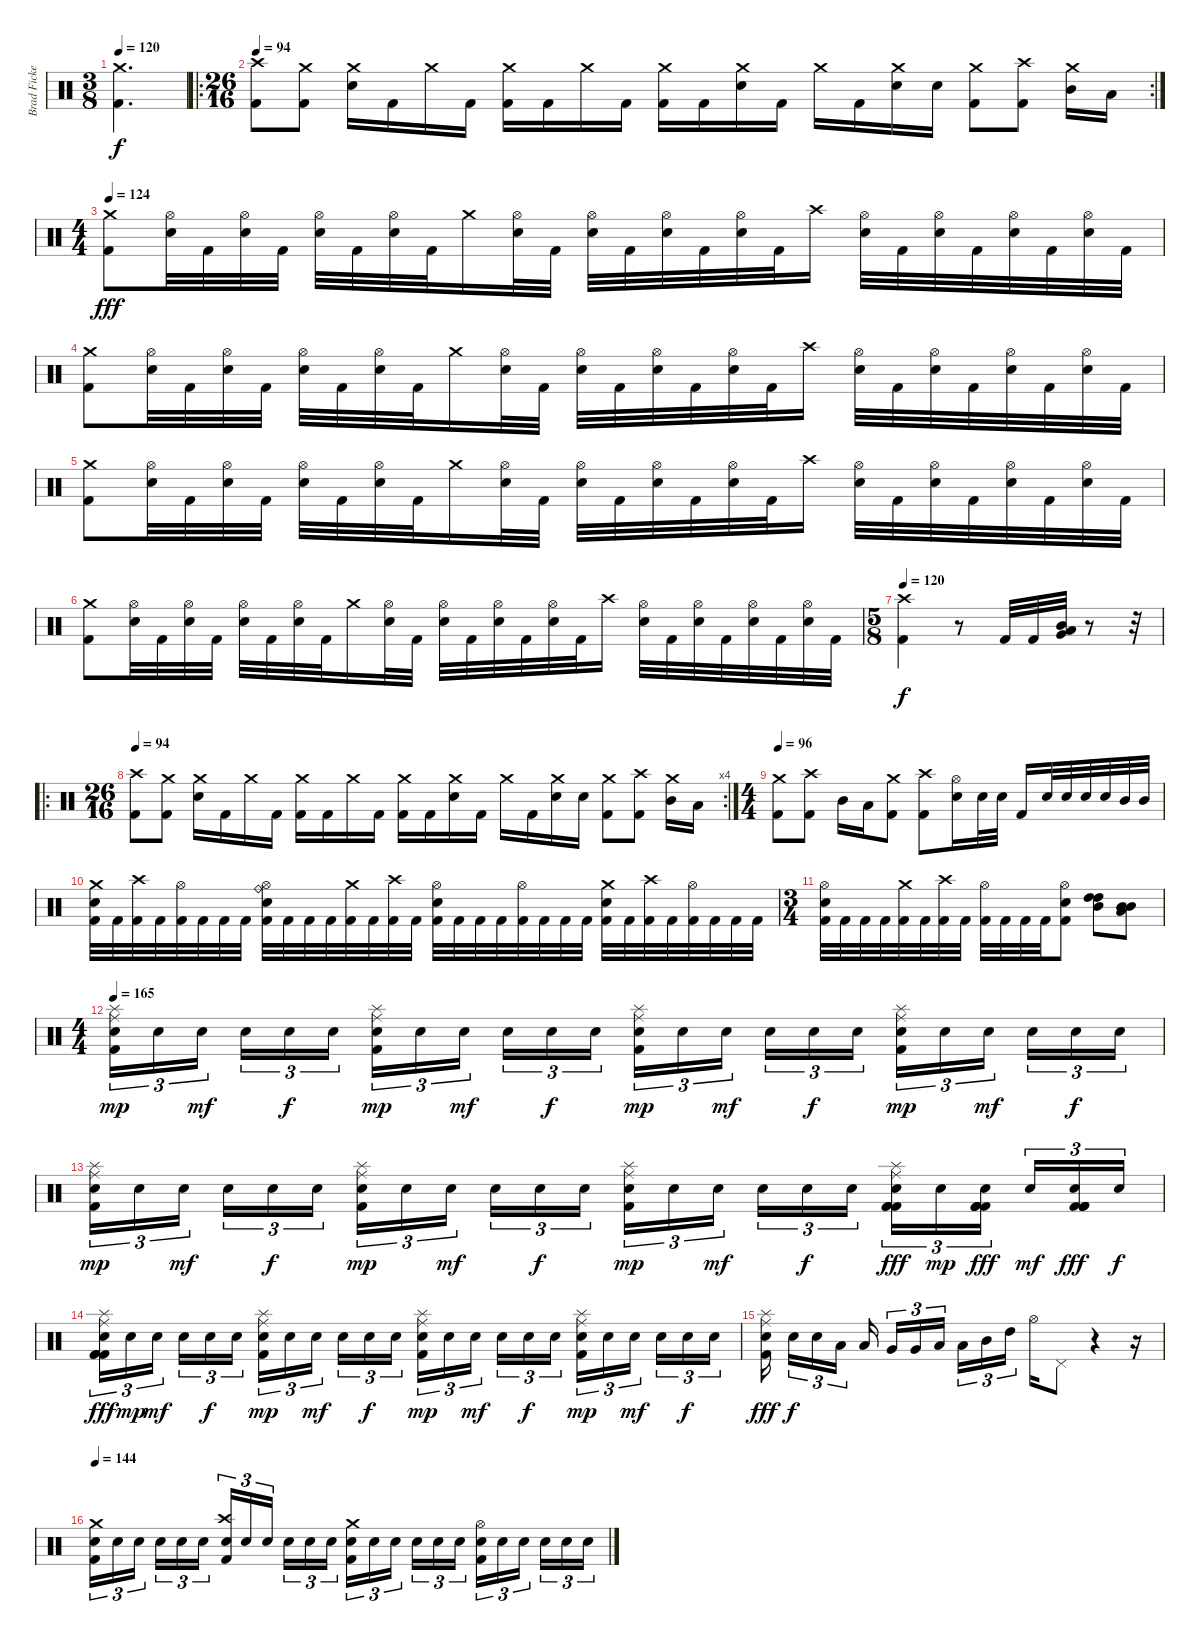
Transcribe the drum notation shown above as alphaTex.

\track ("Brad Fickeisen" "Brad Ficke") {instrument percussion}
\staff {score}
\articulation defaults
\ts (3 8)
\tempo 120
\clef neutral
\ks c
("Crash medium (hit)" "Kick (hit) 2").4{d dy f} |
\ro
\rc 2
\ts (26 16)
\tempo 94
("Crash high (hit)" "Kick (hit) 2").8 ("Crash medium (hit)" "Kick (hit) 2").8 ("Crash medium (hit)" "Electric Snare (hit)").16 "Kick (hit) 2".16 "Crash medium (hit)".16 "Kick (hit) 2".16 ("Crash medium (hit)" "Kick (hit) 2").16 "Kick (hit) 2".16 "Crash medium (hit)".16 "Kick (hit) 2".16 ("Crash medium (hit)" "Kick (hit) 2").16 "Kick (hit) 2".16 ("Crash medium (hit)" "Electric Snare (hit)").16 "Kick (hit) 2".16 "Crash medium (hit)".16 "Kick (hit) 2".16 ("Crash medium (hit)" "Electric Snare (hit)").16 "Electric Snare (hit)".16 ("Crash medium (hit)" "Kick (hit) 2").8 ("Crash high (hit)" "Kick (hit) 2").8 ("Crash medium (hit)" "Mid Tom (hit)").16 "Low Tom (hit)".16 |
\ts (4 4)
\tempo 124
("Crash medium (hit)" "Kick (hit) 2").8{dy fff} ("Hi-Hat (open)" "Electric Snare (hit)").32 "Kick (hit) 2".32 ("Hi-Hat (open)" "Electric Snare (hit)").32 "Kick (hit) 2".32 ("Hi-Hat (open)" "Electric Snare (hit)").32 "Kick (hit) 2".32 ("Hi-Hat (open)" "Electric Snare (hit)").32 "Kick (hit) 2".32 "Crash medium (hit)".16 ("Hi-Hat (open)" "Electric Snare (hit)").32 "Kick (hit) 2".32 ("Hi-Hat (open)" "Electric Snare (hit)").32 "Kick (hit) 2".32 ("Hi-Hat (open)" "Electric Snare (hit)").32 "Kick (hit) 2".32 ("Hi-Hat (open)" "Electric Snare (hit)").32 "Kick (hit) 2".32 "Crash high (hit)".16 ("Hi-Hat (open)" "Electric Snare (hit)").32 "Kick (hit) 2".32 ("Hi-Hat (open)" "Electric Snare (hit)").32 "Kick (hit) 2".32 ("Hi-Hat (open)" "Electric Snare (hit)").32 "Kick (hit) 2".32 ("Hi-Hat (open)" "Electric Snare (hit)").32 "Kick (hit) 2".32 |
("Crash medium (hit)" "Kick (hit) 2").8 ("Hi-Hat (open)" "Electric Snare (hit)").32 "Kick (hit) 2".32 ("Hi-Hat (open)" "Electric Snare (hit)").32 "Kick (hit) 2".32 ("Hi-Hat (open)" "Electric Snare (hit)").32 "Kick (hit) 2".32 ("Hi-Hat (open)" "Electric Snare (hit)").32 "Kick (hit) 2".32 "Crash medium (hit)".16 ("Hi-Hat (open)" "Electric Snare (hit)").32 "Kick (hit) 2".32 ("Hi-Hat (open)" "Electric Snare (hit)").32 "Kick (hit) 2".32 ("Hi-Hat (open)" "Electric Snare (hit)").32 "Kick (hit) 2".32 ("Hi-Hat (open)" "Electric Snare (hit)").32 "Kick (hit) 2".32 "Crash high (hit)".16 ("Hi-Hat (open)" "Electric Snare (hit)").32 "Kick (hit) 2".32 ("Hi-Hat (open)" "Electric Snare (hit)").32 "Kick (hit) 2".32 ("Hi-Hat (open)" "Electric Snare (hit)").32 "Kick (hit) 2".32 ("Hi-Hat (open)" "Electric Snare (hit)").32 "Kick (hit) 2".32 |
("Crash medium (hit)" "Kick (hit) 2").8 ("Hi-Hat (open)" "Electric Snare (hit)").32 "Kick (hit) 2".32 ("Hi-Hat (open)" "Electric Snare (hit)").32 "Kick (hit) 2".32 ("Hi-Hat (open)" "Electric Snare (hit)").32 "Kick (hit) 2".32 ("Hi-Hat (open)" "Electric Snare (hit)").32 "Kick (hit) 2".32 "Crash medium (hit)".16 ("Hi-Hat (open)" "Electric Snare (hit)").32 "Kick (hit) 2".32 ("Hi-Hat (open)" "Electric Snare (hit)").32 "Kick (hit) 2".32 ("Hi-Hat (open)" "Electric Snare (hit)").32 "Kick (hit) 2".32 ("Hi-Hat (open)" "Electric Snare (hit)").32 "Kick (hit) 2".32 "Crash high (hit)".16 ("Hi-Hat (open)" "Electric Snare (hit)").32 "Kick (hit) 2".32 ("Hi-Hat (open)" "Electric Snare (hit)").32 "Kick (hit) 2".32 ("Hi-Hat (open)" "Electric Snare (hit)").32 "Kick (hit) 2".32 ("Hi-Hat (open)" "Electric Snare (hit)").32 "Kick (hit) 2".32 |
("Crash medium (hit)" "Kick (hit) 2").8 ("Hi-Hat (open)" "Electric Snare (hit)").32 "Kick (hit) 2".32 ("Hi-Hat (open)" "Electric Snare (hit)").32 "Kick (hit) 2".32 ("Hi-Hat (open)" "Electric Snare (hit)").32 "Kick (hit) 2".32 ("Hi-Hat (open)" "Electric Snare (hit)").32 "Kick (hit) 2".32 "Crash medium (hit)".16 ("Hi-Hat (open)" "Electric Snare (hit)").32 "Kick (hit) 2".32 ("Hi-Hat (open)" "Electric Snare (hit)").32 "Kick (hit) 2".32 ("Hi-Hat (open)" "Electric Snare (hit)").32 "Kick (hit) 2".32 ("Hi-Hat (open)" "Electric Snare (hit)").32 "Kick (hit) 2".32 "Crash high (hit)".16 ("Hi-Hat (open)" "Electric Snare (hit)").32 "Kick (hit) 2".32 ("Hi-Hat (open)" "Electric Snare (hit)").32 "Kick (hit) 2".32 ("Hi-Hat (open)" "Electric Snare (hit)").32 "Kick (hit) 2".32 ("Hi-Hat (open)" "Electric Snare (hit)").32 "Kick (hit) 2".32 |
\ts (5 8)
\tempo 120
("Crash high (hit)" "Kick (hit) 2").4{dy f} r.8 "Kick (hit) 2".32 "Kick (hit) 2".32 ("Mid Tom (hit)" "Low Tom (hit)" "Very Low Tom (hit)").32 r.8 r.32 |
\ro
\rc 4
\ts (26 16)
\tempo 94
("Crash high (hit)" "Kick (hit) 2").8 ("Crash medium (hit)" "Kick (hit) 2").8 ("Crash medium (hit)" "Electric Snare (hit)").16 "Kick (hit) 2".16 "Crash medium (hit)".16 "Kick (hit) 2".16 ("Crash medium (hit)" "Kick (hit) 2").16 "Kick (hit) 2".16 "Crash medium (hit)".16 "Kick (hit) 2".16 ("Crash medium (hit)" "Kick (hit) 2").16 "Kick (hit) 2".16 ("Crash medium (hit)" "Electric Snare (hit)").16 "Kick (hit) 2".16 "Crash medium (hit)".16 "Kick (hit) 2".16 ("Crash medium (hit)" "Electric Snare (hit)").16 "Electric Snare (hit)".16 ("Crash medium (hit)" "Kick (hit) 2").8 ("Crash high (hit)" "Kick (hit) 2").8 ("Crash medium (hit)" "Mid Tom (hit)").16 "Low Tom (hit)".16 |
\ts (4 4)
\tempo 96
("Crash medium (hit)" "Kick (hit) 2").8 ("Crash high (hit)" "Kick (hit) 2").8 "Mid Tom (hit)".16 "Low Tom (hit)".16 ("Crash medium (hit)" "Kick (hit) 2").8 ("Crash high (hit)" "Kick (hit) 2").8 ("Hi-Hat (open)" "Electric Snare (hit)").16 "Electric Snare (hit)".32 "Electric Snare (hit)".32 "Kick (hit) 2".16 "Electric Snare (hit)".32 "Electric Snare (hit)".32 "Electric Snare (hit)".32 "Electric Snare (hit)".32 "Mid Tom (hit)".32 "Mid Tom (hit)".32 |
("Crash medium (hit)" "Electric Snare (hit)" "Kick (hit) 2").32 "Kick (hit) 2".32 ("Crash high (hit)" "Kick (hit) 2").32 "Kick (hit) 2".32 ("Hi-Hat (open)" "Kick (hit) 2").32 "Kick (hit) 2".32 "Kick (hit) 2".32 "Kick (hit) 2".32 ("Hi-Hat (open)" "Ride (bell)" "Electric Snare (hit)" "Kick (hit) 2").32 "Kick (hit) 2".32 "Kick (hit) 2".32 "Kick (hit) 2".32 ("Crash medium (hit)" "Kick (hit) 2").32 "Kick (hit) 2".32 ("Crash high (hit)" "Kick (hit) 2").32 "Kick (hit) 2".32 ("Hi-Hat (open)" "Electric Snare (hit)" "Kick (hit) 2").32 "Kick (hit) 2".32 "Kick (hit) 2".32 "Kick (hit) 2".32 ("Hi-Hat (open)" "Kick (hit) 2").32 "Kick (hit) 2".32 "Kick (hit) 2".32 "Kick (hit) 2".32 ("Crash medium (hit)" "Electric Snare (hit)" "Kick (hit) 2").32 "Kick (hit) 2".32 ("Crash high (hit)" "Kick (hit) 2").32 "Kick (hit) 2".32 ("Hi-Hat (open)" "Kick (hit) 2").32 "Kick (hit) 2".32 "Kick (hit) 2".32 "Kick (hit) 2".32 |
\ts (3 4)
("Hi-Hat (open)" "Electric Snare (hit)" "Kick (hit) 2").32 "Kick (hit) 2".32 "Kick (hit) 2".32 "Kick (hit) 2".32 ("Crash medium (hit)" "Kick (hit) 2").32 "Kick (hit) 2".32 ("Crash high (hit)" "Kick (hit) 2").32 "Kick (hit) 2".32 ("Hi-Hat (open)" "Kick (hit) 2").32 "Kick (hit) 2".32 "Kick (hit) 2".32 "Kick (hit) 2".32 ("Hi-Hat (open)" "Electric Snare (hit)" "Kick (hit) 2").8 ("High Tom (hit)" "Mid Tom (hit)" "High Tom (hit)").8 ("Mid Tom (hit)" "Low Tom (hit)" "Mid Tom (hit)").8 |
\ts (4 4)
\tempo 165
("Splash (hit)" "Ride (middle)" "Electric Snare (hit)" "Kick (hit) 2").16{tu (3 2) dy mp} "Electric Snare (hit)".16{tu (3 2)} "Electric Snare (hit)".16{tu (3 2) dy mf beam splitsecondary} "Electric Snare (hit)".16{tu (3 2)} "Electric Snare (hit)".16{tu (3 2) dy f} "Electric Snare (hit)".16{tu (3 2)} ("Splash (hit)" "Ride (middle)" "Electric Snare (hit)" "Kick (hit) 2").16{tu (3 2) dy mp} "Electric Snare (hit)".16{tu (3 2)} "Electric Snare (hit)".16{tu (3 2) dy mf beam splitsecondary} "Electric Snare (hit)".16{tu (3 2)} "Electric Snare (hit)".16{tu (3 2) dy f} "Electric Snare (hit)".16{tu (3 2)} ("Splash (hit)" "Ride (middle)" "Electric Snare (hit)" "Kick (hit) 2").16{tu (3 2) dy mp} "Electric Snare (hit)".16{tu (3 2)} "Electric Snare (hit)".16{tu (3 2) dy mf beam splitsecondary} "Electric Snare (hit)".16{tu (3 2)} "Electric Snare (hit)".16{tu (3 2) dy f} "Electric Snare (hit)".16{tu (3 2)} ("Splash (hit)" "Ride (middle)" "Electric Snare (hit)" "Kick (hit) 2").16{tu (3 2) dy mp} "Electric Snare (hit)".16{tu (3 2)} "Electric Snare (hit)".16{tu (3 2) dy mf beam splitsecondary} "Electric Snare (hit)".16{tu (3 2)} "Electric Snare (hit)".16{tu (3 2) dy f} "Electric Snare (hit)".16{tu (3 2)} |
("Splash (hit)" "Ride (middle)" "Electric Snare (hit)" "Kick (hit) 2").16{tu (3 2) dy mp} "Electric Snare (hit)".16{tu (3 2)} "Electric Snare (hit)".16{tu (3 2) dy mf beam splitsecondary} "Electric Snare (hit)".16{tu (3 2)} "Electric Snare (hit)".16{tu (3 2) dy f} "Electric Snare (hit)".16{tu (3 2)} ("Splash (hit)" "Ride (middle)" "Electric Snare (hit)" "Kick (hit) 2").16{tu (3 2) dy mp} "Electric Snare (hit)".16{tu (3 2)} "Electric Snare (hit)".16{tu (3 2) dy mf beam splitsecondary} "Electric Snare (hit)".16{tu (3 2)} "Electric Snare (hit)".16{tu (3 2) dy f} "Electric Snare (hit)".16{tu (3 2)} ("Splash (hit)" "Ride (middle)" "Electric Snare (hit)" "Kick (hit) 2").16{tu (3 2) dy mp} "Electric Snare (hit)".16{tu (3 2)} "Electric Snare (hit)".16{tu (3 2) dy mf beam splitsecondary} "Electric Snare (hit)".16{tu (3 2)} "Electric Snare (hit)".16{tu (3 2) dy f} "Electric Snare (hit)".16{tu (3 2)} ("Splash (hit)" "Ride (middle)" "Kick (hit) 2" "Electric Snare (hit)" "Kick (hit) 2" "Kick (hit) 2").16{tu (3 2) dy fff} "Electric Snare (hit)".16{tu (3 2) dy mp} ("Kick (hit) 2" "Kick (hit) 2" "Electric Snare (hit)" "Kick (hit) 2" "Kick (hit) 2").16{tu (3 2) dy fff beam splitsecondary} "Electric Snare (hit)".16{tu (3 2) dy mf} ("Kick (hit) 2" "Kick (hit) 2" "Electric Snare (hit)" "Kick (hit) 2" "Kick (hit) 2").16{tu (3 2) dy fff} "Electric Snare (hit)".16{tu (3 2) dy f} |
("Splash (hit)" "Ride (middle)" "Kick (hit) 2" "Electric Snare (hit)" "Kick (hit) 2" "Kick (hit) 2").16{tu (3 2) dy fff} "Electric Snare (hit)".16{tu (3 2) dy mp} "Electric Snare (hit)".16{tu (3 2) dy mf beam splitsecondary} "Electric Snare (hit)".16{tu (3 2)} "Electric Snare (hit)".16{tu (3 2) dy f} "Electric Snare (hit)".16{tu (3 2)} ("Splash (hit)" "Ride (middle)" "Electric Snare (hit)" "Kick (hit) 2").16{tu (3 2) dy mp} "Electric Snare (hit)".16{tu (3 2)} "Electric Snare (hit)".16{tu (3 2) dy mf beam splitsecondary} "Electric Snare (hit)".16{tu (3 2)} "Electric Snare (hit)".16{tu (3 2) dy f} "Electric Snare (hit)".16{tu (3 2)} ("Splash (hit)" "Ride (middle)" "Electric Snare (hit)" "Kick (hit) 2").16{tu (3 2) dy mp} "Electric Snare (hit)".16{tu (3 2)} "Electric Snare (hit)".16{tu (3 2) dy mf beam splitsecondary} "Electric Snare (hit)".16{tu (3 2)} "Electric Snare (hit)".16{tu (3 2) dy f} "Electric Snare (hit)".16{tu (3 2)} ("Splash (hit)" "Ride (middle)" "Electric Snare (hit)" "Kick (hit) 2").16{tu (3 2) dy mp} "Electric Snare (hit)".16{tu (3 2)} "Electric Snare (hit)".16{tu (3 2) dy mf beam splitsecondary} "Electric Snare (hit)".16{tu (3 2)} "Electric Snare (hit)".16{tu (3 2) dy f} "Electric Snare (hit)".16{tu (3 2)} |
("Splash (hit)" "Ride (middle)" "Electric Snare (hit)" "Kick (hit) 2").16{dy fff beam splitsecondary} "Electric Snare (hit)".16{tu (3 2) dy f} "Electric Snare (hit)".16{tu (3 2)} "Low Tom (hit)".16{tu (3 2) beam splitsecondary} "Low Tom (hit)".16 "Very Low Tom (hit)".16{tu (3 2)} "Very Low Tom (hit)".16{tu (3 2)} "Low Floor Tom (hit)".16{tu (3 2) beam splitsecondary} "Low Tom (hit)".16{tu (3 2)} "Mid Tom (hit)".16{tu (3 2)} "High Tom (hit)".16{tu (3 2)} "Hi-Hat (open)".16 "Pedal Hi-Hat (hit)".8 r.4 r.16 |
\tempo 148
\tempo 144
("Crash medium (hit)" "Electric Snare (hit)" "Kick (hit) 2").16{tu (3 2)} "Electric Snare (hit)".16{tu (3 2)} "Electric Snare (hit)".16{tu (3 2) beam splitsecondary} "Electric Snare (hit)".16{tu (3 2)} "Electric Snare (hit)".16{tu (3 2)} "Electric Snare (hit)".16{tu (3 2)} ("Crash high (hit)" "Electric Snare (hit)" "Kick (hit) 2").16{tu (3 2)} "Electric Snare (hit)".16{tu (3 2)} "Electric Snare (hit)".16{tu (3 2) beam splitsecondary} "Electric Snare (hit)".16{tu (3 2)} "Electric Snare (hit)".16{tu (3 2)} "Electric Snare (hit)".16{tu (3 2)} ("Crash medium (hit)" "Electric Snare (hit)" "Kick (hit) 2").16{tu (3 2)} "Electric Snare (hit)".16{tu (3 2)} "Electric Snare (hit)".16{tu (3 2) beam splitsecondary} "Electric Snare (hit)".16{tu (3 2)} "Electric Snare (hit)".16{tu (3 2)} "Electric Snare (hit)".16{tu (3 2)} ("Hi-Hat (open)" "Electric Snare (hit)" "Kick (hit) 2").16{tu (3 2)} "Electric Snare (hit)".16{tu (3 2)} "Electric Snare (hit)".16{tu (3 2) beam splitsecondary} "Electric Snare (hit)".16{tu (3 2)} "Electric Snare (hit)".16{tu (3 2)} "Electric Snare (hit)".16{tu (3 2)}
